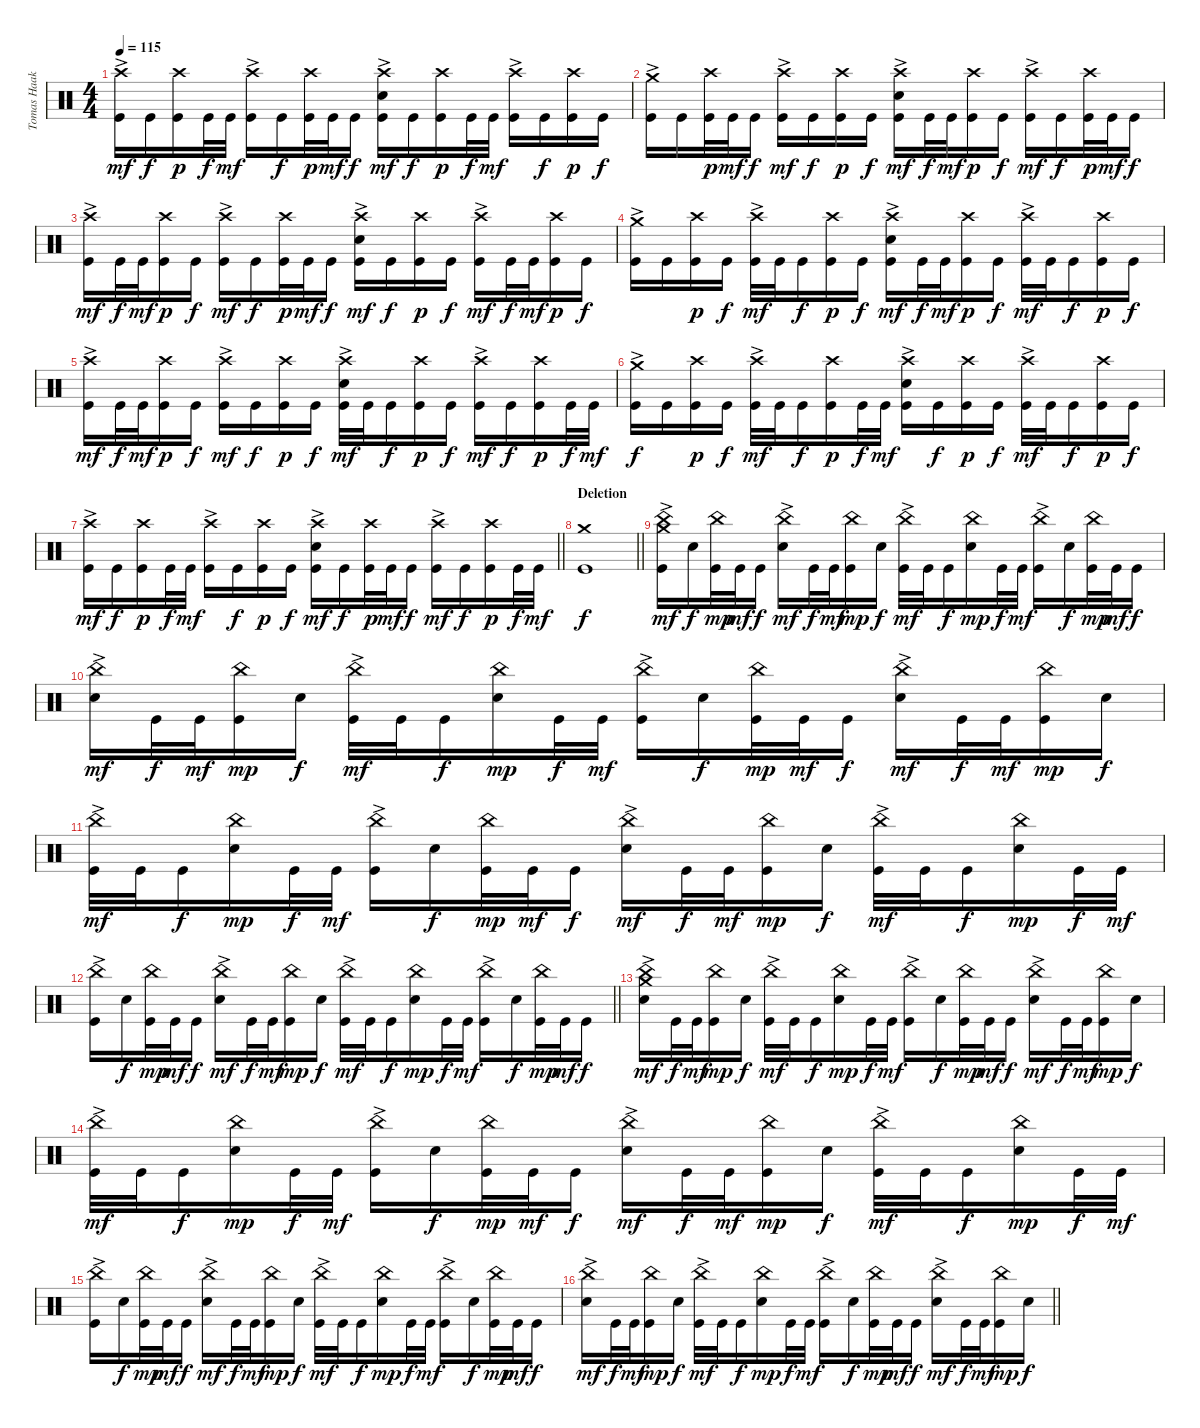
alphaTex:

\track ("Tomas Haake (Drums)" "Tomas Haak") {instrument percussion}
\staff {score}
\articulation defaults
\ts (4 4)
\tempo 115
\clef neutral
\ks c
("Crash high (hit)"{ac} "Kick (hit)").16{dy mf} "Kick (hit)".16{dy f} ("Crash high (hit)" "Kick (hit)").16{dy p} "Kick (hit)".32{dy f} "Kick (hit)".32{dy mf} ("Crash high (hit)"{ac} "Kick (hit)").16 "Kick (hit)".16{dy f} ("Crash high (hit)" "Kick (hit)").32{dy p} "Kick (hit)".32{dy mf} "Kick (hit)".16{dy f} ("Crash high (hit)"{ac} "Electric Snare (hit)" "Kick (hit)").16{dy mf} "Kick (hit)".16{dy f} ("Crash high (hit)" "Kick (hit)").16{dy p} "Kick (hit)".32{dy f} "Kick (hit)".32{dy mf} ("Crash high (hit)"{ac} "Kick (hit)").16 "Kick (hit)".16{dy f} ("Crash high (hit)" "Kick (hit)").16{dy p} "Kick (hit)".16{dy f} |
("Crash medium (hit)"{ac} "Kick (hit)").16 "Kick (hit)".16 ("Crash high (hit)" "Kick (hit)").32{dy p} "Kick (hit)".32{dy mf} "Kick (hit)".16{dy f} ("Crash high (hit)"{ac} "Kick (hit)").16{dy mf} "Kick (hit)".16{dy f} ("Crash high (hit)" "Kick (hit)").16{dy p} "Kick (hit)".16{dy f} ("Crash high (hit)"{ac} "Electric Snare (hit)" "Kick (hit)").16{dy mf} "Kick (hit)".32{dy f} "Kick (hit)".32{dy mf} ("Crash high (hit)" "Kick (hit)").16{dy p} "Kick (hit)".16{dy f} ("Crash high (hit)"{ac} "Kick (hit)").16{dy mf} "Kick (hit)".16{dy f} ("Crash high (hit)" "Kick (hit)").32{dy p} "Kick (hit)".32{dy mf} "Kick (hit)".16{dy f} |
("Crash high (hit)"{ac} "Kick (hit)").16{dy mf} "Kick (hit)".32{dy f} "Kick (hit)".32{dy mf} ("Crash high (hit)" "Kick (hit)").16{dy p} "Kick (hit)".16{dy f} ("Crash high (hit)"{ac} "Kick (hit)").16{dy mf} "Kick (hit)".16{dy f} ("Crash high (hit)" "Kick (hit)").32{dy p} "Kick (hit)".32{dy mf} "Kick (hit)".16{dy f} ("Crash high (hit)"{ac} "Electric Snare (hit)" "Kick (hit)").16{dy mf} "Kick (hit)".16{dy f} ("Crash high (hit)" "Kick (hit)").16{dy p} "Kick (hit)".16{dy f} ("Crash high (hit)"{ac} "Kick (hit)").16{dy mf} "Kick (hit)".32{dy f} "Kick (hit)".32{dy mf} ("Crash high (hit)" "Kick (hit)").16{dy p} "Kick (hit)".16{dy f} |
("Crash medium (hit)"{ac} "Kick (hit)").16 "Kick (hit)".16 ("Crash high (hit)" "Kick (hit)").16{dy p} "Kick (hit)".16{dy f} ("Crash high (hit)"{ac} "Kick (hit)").32{dy mf} "Kick (hit)".32 "Kick (hit)".16{dy f} ("Crash high (hit)" "Kick (hit)").16{dy p} "Kick (hit)".16{dy f} ("Crash high (hit)"{ac} "Electric Snare (hit)" "Kick (hit)").16{dy mf} "Kick (hit)".32{dy f} "Kick (hit)".32{dy mf} ("Crash high (hit)" "Kick (hit)").16{dy p} "Kick (hit)".16{dy f} ("Crash high (hit)"{ac} "Kick (hit)").32{dy mf} "Kick (hit)".32 "Kick (hit)".16{dy f} ("Crash high (hit)" "Kick (hit)").16{dy p} "Kick (hit)".16{dy f} |
("Crash high (hit)"{ac} "Kick (hit)").16{dy mf} "Kick (hit)".32{dy f} "Kick (hit)".32{dy mf} ("Crash high (hit)" "Kick (hit)").16{dy p} "Kick (hit)".16{dy f} ("Crash high (hit)"{ac} "Kick (hit)").16{dy mf} "Kick (hit)".16{dy f} ("Crash high (hit)" "Kick (hit)").16{dy p} "Kick (hit)".16{dy f} ("Crash high (hit)"{ac} "Electric Snare (hit)" "Kick (hit)").32{dy mf} "Kick (hit)".32 "Kick (hit)".16{dy f} ("Crash high (hit)" "Kick (hit)").16{dy p} "Kick (hit)".16{dy f} ("Crash high (hit)"{ac} "Kick (hit)").16{dy mf} "Kick (hit)".16{dy f} ("Crash high (hit)" "Kick (hit)").16{dy p} "Kick (hit)".32{dy f} "Kick (hit)".32{dy mf} |
("Crash medium (hit)"{ac} "Kick (hit)").16{dy f} "Kick (hit)".16 ("Crash high (hit)" "Kick (hit)").16{dy p} "Kick (hit)".16{dy f} ("Crash high (hit)"{ac} "Kick (hit)").32{dy mf} "Kick (hit)".32 "Kick (hit)".16{dy f} ("Crash high (hit)" "Kick (hit)").16{dy p} "Kick (hit)".32{dy f} "Kick (hit)".32{dy mf} ("Crash high (hit)"{ac} "Electric Snare (hit)" "Kick (hit)").16 "Kick (hit)".16{dy f} ("Crash high (hit)" "Kick (hit)").16{dy p} "Kick (hit)".16{dy f} ("Crash high (hit)"{ac} "Kick (hit)").32{dy mf} "Kick (hit)".32 "Kick (hit)".16{dy f} ("Crash high (hit)" "Kick (hit)").16{dy p} "Kick (hit)".16{dy f} |
\barLineRight lightlight
("Crash high (hit)"{ac} "Kick (hit)").16{dy mf} "Kick (hit)".16{dy f} ("Crash high (hit)" "Kick (hit)").16{dy p} "Kick (hit)".32{dy f} "Kick (hit)".32{dy mf} ("Crash high (hit)"{ac} "Kick (hit)").16 "Kick (hit)".16{dy f} ("Crash high (hit)" "Kick (hit)").16{dy p} "Kick (hit)".16{dy f} ("Crash high (hit)"{ac} "Electric Snare (hit)" "Kick (hit)").16{dy mf} "Kick (hit)".16{dy f} ("Crash high (hit)" "Kick (hit)").32{dy p} "Kick (hit)".32{dy mf} "Kick (hit)".16{dy f} ("Crash high (hit)"{ac} "Kick (hit)").16{dy mf} "Kick (hit)".16{dy f} ("Crash high (hit)" "Kick (hit)").16{dy p} "Kick (hit)".32{dy f} "Kick (hit)".32{dy mf} |
\section ("" "Deletion")
\barLineRight lightlight
("Crash medium (hit)" "Kick (hit)").1{dy f} |
("China (hit)"{ac} "Crash medium (hit)" "Kick (hit)").16{dy mf} "Electric Snare (hit)".16{dy f} ("China (hit)" "Kick (hit)").32{dy mp} "Kick (hit)".32{dy mf} "Kick (hit)".16{dy f} ("China (hit)"{ac} "Electric Snare (hit)").16{dy mf} "Kick (hit)".32{dy f} "Kick (hit)".32{dy mf} ("China (hit)" "Kick (hit)").16{dy mp} "Electric Snare (hit)".16{dy f} ("China (hit)"{ac} "Kick (hit)").32{dy mf} "Kick (hit)".32 "Kick (hit)".16{dy f} ("China (hit)" "Electric Snare (hit)").16{dy mp} "Kick (hit)".32{dy f} "Kick (hit)".32{dy mf} ("China (hit)"{ac} "Kick (hit)").16 "Electric Snare (hit)".16{dy f} ("China (hit)" "Kick (hit)").32{dy mp} "Kick (hit)".32{dy mf} "Kick (hit)".16{dy f} |
("China (hit)"{ac} "Electric Snare (hit)").16{dy mf} "Kick (hit)".32{dy f} "Kick (hit)".32{dy mf} ("China (hit)" "Kick (hit)").16{dy mp} "Electric Snare (hit)".16{dy f} ("China (hit)"{ac} "Kick (hit)").32{dy mf} "Kick (hit)".32 "Kick (hit)".16{dy f} ("China (hit)" "Electric Snare (hit)").16{dy mp} "Kick (hit)".32{dy f} "Kick (hit)".32{dy mf} ("China (hit)"{ac} "Kick (hit)").16 "Electric Snare (hit)".16{dy f} ("China (hit)" "Kick (hit)").32{dy mp} "Kick (hit)".32{dy mf} "Kick (hit)".16{dy f} ("China (hit)"{ac} "Electric Snare (hit)").16{dy mf} "Kick (hit)".32{dy f} "Kick (hit)".32{dy mf} ("China (hit)" "Kick (hit)").16{dy mp} "Electric Snare (hit)".16{dy f} |
("China (hit)"{ac} "Kick (hit)").32{dy mf} "Kick (hit)".32 "Kick (hit)".16{dy f} ("China (hit)" "Electric Snare (hit)").16{dy mp} "Kick (hit)".32{dy f} "Kick (hit)".32{dy mf} ("China (hit)"{ac} "Kick (hit)").16 "Electric Snare (hit)".16{dy f} ("China (hit)" "Kick (hit)").32{dy mp} "Kick (hit)".32{dy mf} "Kick (hit)".16{dy f} ("China (hit)"{ac} "Electric Snare (hit)").16{dy mf} "Kick (hit)".32{dy f} "Kick (hit)".32{dy mf} ("China (hit)" "Kick (hit)").16{dy mp} "Electric Snare (hit)".16{dy f} ("China (hit)"{ac} "Kick (hit)").32{dy mf} "Kick (hit)".32 "Kick (hit)".16{dy f} ("China (hit)" "Electric Snare (hit)").16{dy mp} "Kick (hit)".32{dy f} "Kick (hit)".32{dy mf} |
\barLineRight lightlight
("China (hit)"{ac} "Kick (hit)").16 "Electric Snare (hit)".16{dy f} ("China (hit)" "Kick (hit)").32{dy mp} "Kick (hit)".32{dy mf} "Kick (hit)".16{dy f} ("China (hit)"{ac} "Electric Snare (hit)").16{dy mf} "Kick (hit)".32{dy f} "Kick (hit)".32{dy mf} ("China (hit)" "Kick (hit)").16{dy mp} "Electric Snare (hit)".16{dy f} ("China (hit)"{ac} "Kick (hit)").32{dy mf} "Kick (hit)".32 "Kick (hit)".16{dy f} ("China (hit)" "Electric Snare (hit)").16{dy mp} "Kick (hit)".32{dy f} "Kick (hit)".32{dy mf} ("China (hit)"{ac} "Kick (hit)").16 "Electric Snare (hit)".16{dy f} ("China (hit)" "Kick (hit)").32{dy mp} "Kick (hit)".32{dy mf} "Kick (hit)".16{dy f} |
("China (hit)"{ac} "Crash medium (hit)" "Electric Snare (hit)").16{dy mf} "Kick (hit)".32{dy f} "Kick (hit)".32{dy mf} ("China (hit)" "Kick (hit)").16{dy mp} "Electric Snare (hit)".16{dy f} ("China (hit)"{ac} "Kick (hit)").32{dy mf} "Kick (hit)".32 "Kick (hit)".16{dy f} ("China (hit)" "Electric Snare (hit)").16{dy mp} "Kick (hit)".32{dy f} "Kick (hit)".32{dy mf} ("China (hit)"{ac} "Kick (hit)").16 "Electric Snare (hit)".16{dy f} ("China (hit)" "Kick (hit)").32{dy mp} "Kick (hit)".32{dy mf} "Kick (hit)".16{dy f} ("China (hit)"{ac} "Electric Snare (hit)").16{dy mf} "Kick (hit)".32{dy f} "Kick (hit)".32{dy mf} ("China (hit)" "Kick (hit)").16{dy mp} "Electric Snare (hit)".16{dy f} |
("China (hit)"{ac} "Kick (hit)").32{dy mf} "Kick (hit)".32 "Kick (hit)".16{dy f} ("China (hit)" "Electric Snare (hit)").16{dy mp} "Kick (hit)".32{dy f} "Kick (hit)".32{dy mf} ("China (hit)"{ac} "Kick (hit)").16 "Electric Snare (hit)".16{dy f} ("China (hit)" "Kick (hit)").32{dy mp} "Kick (hit)".32{dy mf} "Kick (hit)".16{dy f} ("China (hit)"{ac} "Electric Snare (hit)").16{dy mf} "Kick (hit)".32{dy f} "Kick (hit)".32{dy mf} ("China (hit)" "Kick (hit)").16{dy mp} "Electric Snare (hit)".16{dy f} ("China (hit)"{ac} "Kick (hit)").32{dy mf} "Kick (hit)".32 "Kick (hit)".16{dy f} ("China (hit)" "Electric Snare (hit)").16{dy mp} "Kick (hit)".32{dy f} "Kick (hit)".32{dy mf} |
("China (hit)"{ac} "Kick (hit)").16 "Electric Snare (hit)".16{dy f} ("China (hit)" "Kick (hit)").32{dy mp} "Kick (hit)".32{dy mf} "Kick (hit)".16{dy f} ("China (hit)"{ac} "Electric Snare (hit)").16{dy mf} "Kick (hit)".32{dy f} "Kick (hit)".32{dy mf} ("China (hit)" "Kick (hit)").16{dy mp} "Electric Snare (hit)".16{dy f} ("China (hit)"{ac} "Kick (hit)").32{dy mf} "Kick (hit)".32 "Kick (hit)".16{dy f} ("China (hit)" "Electric Snare (hit)").16{dy mp} "Kick (hit)".32{dy f} "Kick (hit)".32{dy mf} ("China (hit)"{ac} "Kick (hit)").16 "Electric Snare (hit)".16{dy f} ("China (hit)" "Kick (hit)").32{dy mp} "Kick (hit)".32{dy mf} "Kick (hit)".16{dy f} |
\barLineRight lightlight
("China (hit)"{ac} "Electric Snare (hit)").16{dy mf} "Kick (hit)".32{dy f} "Kick (hit)".32{dy mf} ("China (hit)" "Kick (hit)").16{dy mp} "Electric Snare (hit)".16{dy f} ("China (hit)"{ac} "Kick (hit)").32{dy mf} "Kick (hit)".32 "Kick (hit)".16{dy f} ("China (hit)" "Electric Snare (hit)").16{dy mp} "Kick (hit)".32{dy f} "Kick (hit)".32{dy mf} ("China (hit)"{ac} "Kick (hit)").16 "Electric Snare (hit)".16{dy f} ("China (hit)" "Kick (hit)").32{dy mp} "Kick (hit)".32{dy mf} "Kick (hit)".16{dy f} ("China (hit)"{ac} "Electric Snare (hit)").16{dy mf} "Kick (hit)".32{dy f} "Kick (hit)".32{dy mf} ("China (hit)" "Kick (hit)").16{dy mp} "Electric Snare (hit)".16{dy f}
